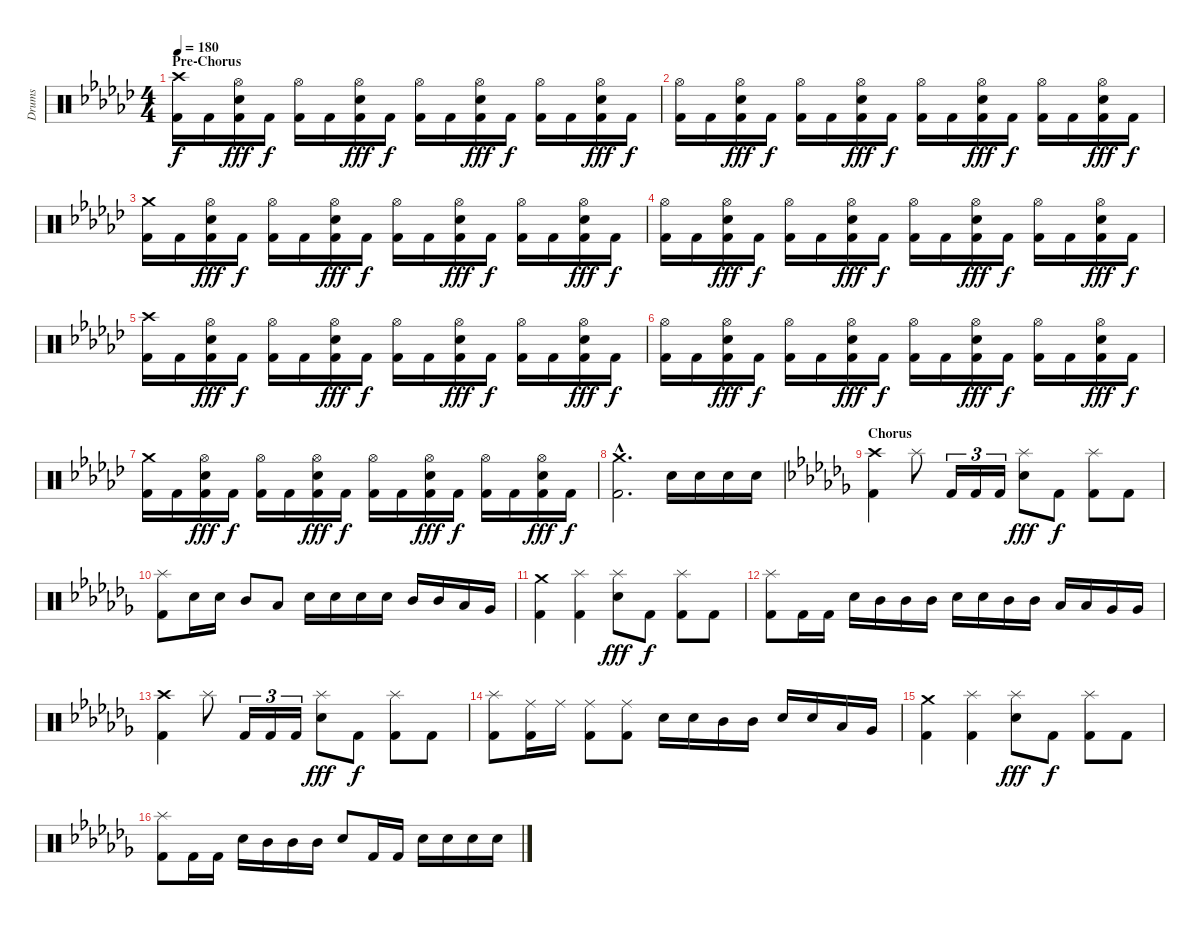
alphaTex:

\track ("Drums" "Drums") {instrument percussion}
\staff {score}
\articulation defaults
\ts (4 4)
\section ("" "Pre-Chorus")
\tempo 180
\clef neutral
\ks ebminor
("Crash high (hit)" "Kick (hit) 2").16{dy f} "Kick (hit) 2".16 ("Hi-Hat (open)" "Snare (hit) 2" "Kick (hit) 2").16{dy fff} "Kick (hit) 2".16{dy f} ("Hi-Hat (open)" "Kick (hit) 2").16 "Kick (hit) 2".16 ("Hi-Hat (open)" "Snare (hit) 2" "Kick (hit) 2").16{dy fff} "Kick (hit) 2".16{dy f} ("Hi-Hat (open)" "Kick (hit) 2").16 "Kick (hit) 2".16 ("Hi-Hat (open)" "Snare (hit) 2" "Kick (hit) 2").16{dy fff} "Kick (hit) 2".16{dy f} ("Hi-Hat (open)" "Kick (hit) 2").16 "Kick (hit) 2".16 ("Hi-Hat (open)" "Snare (hit) 2" "Kick (hit) 2").16{dy fff} "Kick (hit) 2".16{dy f} |
("Hi-Hat (open)" "Kick (hit) 2").16 "Kick (hit) 2".16 ("Hi-Hat (open)" "Snare (hit) 2" "Kick (hit) 2").16{dy fff} "Kick (hit) 2".16{dy f} ("Hi-Hat (open)" "Kick (hit) 2").16 "Kick (hit) 2".16 ("Hi-Hat (open)" "Snare (hit) 2" "Kick (hit) 2").16{dy fff} "Kick (hit) 2".16{dy f} ("Hi-Hat (open)" "Kick (hit) 2").16 "Kick (hit) 2".16 ("Hi-Hat (open)" "Snare (hit) 2" "Kick (hit) 2").16{dy fff} "Kick (hit) 2".16{dy f} ("Hi-Hat (open)" "Kick (hit) 2").16 "Kick (hit) 2".16 ("Hi-Hat (open)" "Snare (hit) 2" "Kick (hit) 2").16{dy fff} "Kick (hit) 2".16{dy f} |
("Crash medium (hit)" "Kick (hit) 2").16 "Kick (hit) 2".16 ("Hi-Hat (open)" "Snare (hit) 2" "Kick (hit) 2").16{dy fff} "Kick (hit) 2".16{dy f} ("Hi-Hat (open)" "Kick (hit) 2").16 "Kick (hit) 2".16 ("Hi-Hat (open)" "Snare (hit) 2" "Kick (hit) 2").16{dy fff} "Kick (hit) 2".16{dy f} ("Hi-Hat (open)" "Kick (hit) 2").16 "Kick (hit) 2".16 ("Hi-Hat (open)" "Snare (hit) 2" "Kick (hit) 2").16{dy fff} "Kick (hit) 2".16{dy f} ("Hi-Hat (open)" "Kick (hit) 2").16 "Kick (hit) 2".16 ("Hi-Hat (open)" "Snare (hit) 2" "Kick (hit) 2").16{dy fff} "Kick (hit) 2".16{dy f} |
("Hi-Hat (open)" "Kick (hit) 2").16 "Kick (hit) 2".16 ("Hi-Hat (open)" "Snare (hit) 2" "Kick (hit) 2").16{dy fff} "Kick (hit) 2".16{dy f} ("Hi-Hat (open)" "Kick (hit) 2").16 "Kick (hit) 2".16 ("Hi-Hat (open)" "Snare (hit) 2" "Kick (hit) 2").16{dy fff} "Kick (hit) 2".16{dy f} ("Hi-Hat (open)" "Kick (hit) 2").16 "Kick (hit) 2".16 ("Hi-Hat (open)" "Snare (hit) 2" "Kick (hit) 2").16{dy fff} "Kick (hit) 2".16{dy f} ("Hi-Hat (open)" "Kick (hit) 2").16 "Kick (hit) 2".16 ("Hi-Hat (open)" "Snare (hit) 2" "Kick (hit) 2").16{dy fff} "Kick (hit) 2".16{dy f} |
("Crash high (hit)" "Kick (hit) 2").16 "Kick (hit) 2".16 ("Hi-Hat (open)" "Snare (hit) 2" "Kick (hit) 2").16{dy fff} "Kick (hit) 2".16{dy f} ("Hi-Hat (open)" "Kick (hit) 2").16 "Kick (hit) 2".16 ("Hi-Hat (open)" "Snare (hit) 2" "Kick (hit) 2").16{dy fff} "Kick (hit) 2".16{dy f} ("Hi-Hat (open)" "Kick (hit) 2").16 "Kick (hit) 2".16 ("Hi-Hat (open)" "Snare (hit) 2" "Kick (hit) 2").16{dy fff} "Kick (hit) 2".16{dy f} ("Hi-Hat (open)" "Kick (hit) 2").16 "Kick (hit) 2".16 ("Hi-Hat (open)" "Snare (hit) 2" "Kick (hit) 2").16{dy fff} "Kick (hit) 2".16{dy f} |
("Hi-Hat (open)" "Kick (hit) 2").16 "Kick (hit) 2".16 ("Hi-Hat (open)" "Snare (hit) 2" "Kick (hit) 2").16{dy fff} "Kick (hit) 2".16{dy f} ("Hi-Hat (open)" "Kick (hit) 2").16 "Kick (hit) 2".16 ("Hi-Hat (open)" "Snare (hit) 2" "Kick (hit) 2").16{dy fff} "Kick (hit) 2".16{dy f} ("Hi-Hat (open)" "Kick (hit) 2").16 "Kick (hit) 2".16 ("Hi-Hat (open)" "Snare (hit) 2" "Kick (hit) 2").16{dy fff} "Kick (hit) 2".16{dy f} ("Hi-Hat (open)" "Kick (hit) 2").16 "Kick (hit) 2".16 ("Hi-Hat (open)" "Snare (hit) 2" "Kick (hit) 2").16{dy fff} "Kick (hit) 2".16{dy f} |
("Crash medium (hit)" "Kick (hit) 2").16 "Kick (hit) 2".16 ("Hi-Hat (open)" "Snare (hit) 2" "Kick (hit) 2").16{dy fff} "Kick (hit) 2".16{dy f} ("Hi-Hat (open)" "Kick (hit) 2").16 "Kick (hit) 2".16 ("Hi-Hat (open)" "Snare (hit) 2" "Kick (hit) 2").16{dy fff} "Kick (hit) 2".16{dy f} ("Hi-Hat (open)" "Kick (hit) 2").16 "Kick (hit) 2".16 ("Hi-Hat (open)" "Snare (hit) 2" "Kick (hit) 2").16{dy fff} "Kick (hit) 2".16{dy f} ("Hi-Hat (open)" "Kick (hit) 2").16 "Kick (hit) 2".16 ("Hi-Hat (open)" "Snare (hit) 2" "Kick (hit) 2").16{dy fff} "Kick (hit) 2".16{dy f} |
("Crash medium (hit)"{hac} "Kick (hit) 2"{hac}).2{d} "Snare (hit) 2".16 "Snare (hit) 2".16 "Snare (hit) 2".16 "Snare (hit) 2".16 |
\section ("" "Chorus")
\ks abminor
("Crash high (hit)" "Kick (hit) 2").4 "Splash (hit)".8 "Kick (hit) 2".16{tu (3 2)} "Kick (hit) 2".16{tu (3 2)} "Kick (hit) 2".16{tu (3 2)} ("Splash (hit)" "Snare (hit) 2").8{dy fff} "Kick (hit) 2".8{dy f} ("Splash (hit)" "Kick (hit) 2").8 "Kick (hit) 2".8 |
("Splash (hit)" "Kick (hit) 2").8 "Snare (hit) 2".16 "Snare (hit) 2".16 "Mid Tom (hit)".8 "Low Tom (hit)".8 "Snare (hit) 2".16 "Snare (hit) 2".16 "Snare (hit) 2".16 "Snare (hit) 2".16 "Mid Tom (hit)".16 "Mid Tom (hit)".16 "Low Tom (hit)".16 "Very Low Tom (hit)".16 |
("Crash medium (hit)" "Kick (hit) 2").4 ("Splash (hit)" "Kick (hit) 2").4 ("Splash (hit)" "Snare (hit) 2").8{dy fff} "Kick (hit) 2".8{dy f} ("Splash (hit)" "Kick (hit) 2").8 "Kick (hit) 2".8 |
("Splash (hit)" "Kick (hit) 2").8 "Kick (hit) 2".16 "Kick (hit) 2".16 "Snare (hit) 2".16 "Mid Tom (hit)".16 "Mid Tom (hit)".16 "Mid Tom (hit)".16 "Snare (hit) 2".16 "Snare (hit) 2".16 "Mid Tom (hit)".16 "Mid Tom (hit)".16 "Low Tom (hit)".16 "Low Tom (hit)".16 "Very Low Tom (hit)".16 "Very Low Tom (hit)".16 |
("Crash high (hit)" "Kick (hit) 2").4 "Splash (hit)".8 "Kick (hit) 2".16{tu (3 2)} "Kick (hit) 2".16{tu (3 2)} "Kick (hit) 2".16{tu (3 2)} ("Splash (hit)" "Snare (hit) 2").8{dy fff} "Kick (hit) 2".8{dy f} ("Splash (hit)" "Kick (hit) 2").8 "Kick (hit) 2".8 |
("Splash (hit)" "Kick (hit) 2").8 ("Ride (middle)" "Kick (hit) 2").16 "Ride (middle)".16 ("Ride (middle)" "Kick (hit) 2").8 ("Ride (middle)" "Kick (hit) 2").8 "Snare (hit) 2".16 "Snare (hit) 2".16 "Mid Tom (hit)".16 "Mid Tom (hit)".16 "Snare (hit) 2".16 "Snare (hit) 2".16 "Low Tom (hit)".16 "Very Low Tom (hit)".16 |
("Crash medium (hit)" "Kick (hit) 2").4 ("Splash (hit)" "Kick (hit) 2").4 ("Splash (hit)" "Snare (hit) 2").8{dy fff} "Kick (hit) 2".8{dy f} ("Splash (hit)" "Kick (hit) 2").8 "Kick (hit) 2".8 |
("Splash (hit)" "Kick (hit) 2").8 "Kick (hit) 2".16 "Kick (hit) 2".16 "Snare (hit) 2".16 "Mid Tom (hit)".16 "Mid Tom (hit)".16 "Mid Tom (hit)".16 "Snare (hit) 2".8 "Kick (hit) 2".16 "Kick (hit) 2".16 "Snare (hit) 2".16 "Snare (hit) 2".16 "Snare (hit) 2".16 "Snare (hit) 2".16
